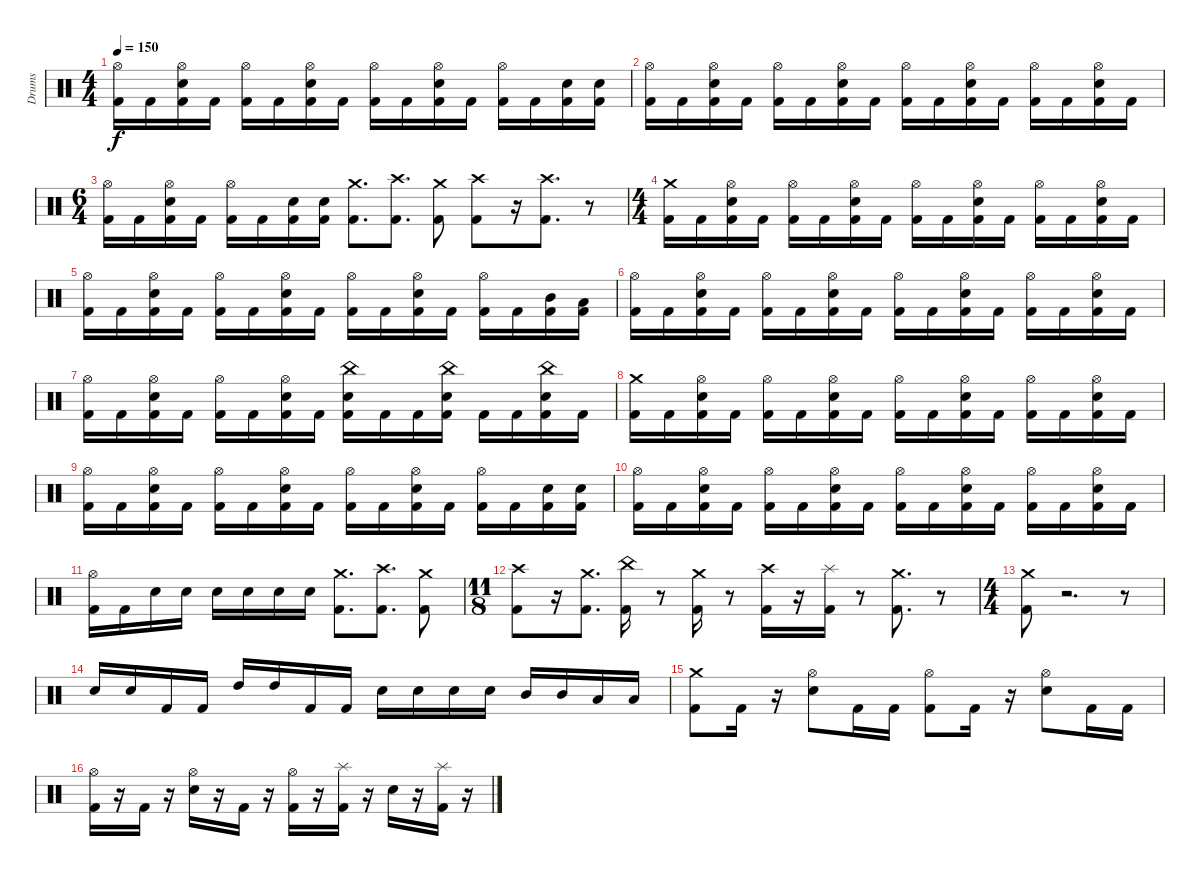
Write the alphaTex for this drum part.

\track ("Drums" "Drums") {instrument percussion}
\staff {score}
\articulation defaults
\ts (4 4)
\tempo 150
\clef neutral
\ks c
("Hi-Hat (open)" "Kick (hit) 2").16{dy f} "Kick (hit) 2".16 ("Hi-Hat (open)" "Electric Snare (hit)" "Kick (hit) 2").16 "Kick (hit) 2".16 ("Hi-Hat (open)" "Kick (hit) 2").16 "Kick (hit) 2".16 ("Hi-Hat (open)" "Electric Snare (hit)" "Kick (hit) 2").16 "Kick (hit) 2".16 ("Hi-Hat (open)" "Kick (hit) 2").16 "Kick (hit) 2".16 ("Hi-Hat (open)" "Electric Snare (hit)" "Kick (hit) 2").16 "Kick (hit) 2".16 ("Hi-Hat (open)" "Kick (hit) 2").16 "Kick (hit) 2".16 ("Electric Snare (hit)" "Kick (hit) 2").16 ("Electric Snare (hit)" "Kick (hit) 2").16 |
("Hi-Hat (open)" "Kick (hit) 2").16 "Kick (hit) 2".16 ("Hi-Hat (open)" "Electric Snare (hit)" "Kick (hit) 2").16 "Kick (hit) 2".16 ("Hi-Hat (open)" "Kick (hit) 2").16 "Kick (hit) 2".16 ("Hi-Hat (open)" "Electric Snare (hit)" "Kick (hit) 2").16 "Kick (hit) 2".16 ("Hi-Hat (open)" "Kick (hit) 2").16 "Kick (hit) 2".16 ("Hi-Hat (open)" "Electric Snare (hit)" "Kick (hit) 2").16 "Kick (hit) 2".16 ("Hi-Hat (open)" "Kick (hit) 2").16 "Kick (hit) 2".16 ("Hi-Hat (open)" "Electric Snare (hit)" "Kick (hit) 2").16 "Kick (hit) 2".16 |
\ts (6 4)
("Hi-Hat (open)" "Kick (hit) 2").16 "Kick (hit) 2".16 ("Hi-Hat (open)" "Electric Snare (hit)" "Kick (hit) 2").16 "Kick (hit) 2".16 ("Hi-Hat (open)" "Kick (hit) 2").16 "Kick (hit) 2".16 ("Electric Snare (hit)" "Kick (hit) 2").16 ("Electric Snare (hit)" "Kick (hit) 2").16 ("Crash medium (hit)" "Kick (hit) 2").8{d} ("Crash high (hit)" "Kick (hit) 2").8{d} ("Crash medium (hit)" "Kick (hit) 2").8 ("Crash high (hit)" "Kick (hit) 2").8 r.16 ("Crash high (hit)" "Kick (hit) 2").8{d} r.8 |
\ts (4 4)
("Crash medium (hit)" "Kick (hit) 2").16 "Kick (hit) 2".16 ("Hi-Hat (open)" "Electric Snare (hit)" "Kick (hit) 2").16 "Kick (hit) 2".16 ("Hi-Hat (open)" "Kick (hit) 2").16 "Kick (hit) 2".16 ("Hi-Hat (open)" "Electric Snare (hit)" "Kick (hit) 2").16 "Kick (hit) 2".16 ("Hi-Hat (open)" "Kick (hit) 2").16 "Kick (hit) 2".16 ("Hi-Hat (open)" "Electric Snare (hit)" "Kick (hit) 2").16 "Kick (hit) 2".16 ("Hi-Hat (open)" "Kick (hit) 2").16 "Kick (hit) 2".16 ("Hi-Hat (open)" "Electric Snare (hit)" "Kick (hit) 2").16 "Kick (hit) 2".16 |
("Hi-Hat (open)" "Kick (hit) 2").16 "Kick (hit) 2".16 ("Hi-Hat (open)" "Electric Snare (hit)" "Kick (hit) 2").16 "Kick (hit) 2".16 ("Hi-Hat (open)" "Kick (hit) 2").16 "Kick (hit) 2".16 ("Hi-Hat (open)" "Electric Snare (hit)" "Kick (hit) 2").16 "Kick (hit) 2".16 ("Hi-Hat (open)" "Kick (hit) 2").16 "Kick (hit) 2".16 ("Hi-Hat (open)" "Electric Snare (hit)" "Kick (hit) 2").16 "Kick (hit) 2".16 ("Hi-Hat (open)" "Kick (hit) 2").16 "Kick (hit) 2".16 ("Mid Tom (hit)" "Kick (hit) 2").16 ("Low Tom (hit)" "Kick (hit) 2").16 |
("Hi-Hat (open)" "Kick (hit) 2").16 "Kick (hit) 2".16 ("Hi-Hat (open)" "Electric Snare (hit)" "Kick (hit) 2").16 "Kick (hit) 2".16 ("Hi-Hat (open)" "Kick (hit) 2").16 "Kick (hit) 2".16 ("Hi-Hat (open)" "Electric Snare (hit)" "Kick (hit) 2").16 "Kick (hit) 2".16 ("Hi-Hat (open)" "Kick (hit) 2").16 "Kick (hit) 2".16 ("Hi-Hat (open)" "Electric Snare (hit)" "Kick (hit) 2").16 "Kick (hit) 2".16 ("Hi-Hat (open)" "Kick (hit) 2").16 "Kick (hit) 2".16 ("Hi-Hat (open)" "Electric Snare (hit)" "Kick (hit) 2").16 "Kick (hit) 2".16 |
("Hi-Hat (open)" "Kick (hit) 2").16 "Kick (hit) 2".16 ("Hi-Hat (open)" "Electric Snare (hit)" "Kick (hit) 2").16 "Kick (hit) 2".16 ("Hi-Hat (open)" "Kick (hit) 2").16 "Kick (hit) 2".16 ("Hi-Hat (open)" "Electric Snare (hit)" "Kick (hit) 2").16 "Kick (hit) 2".16 ("Electric Snare (hit)" "Kick (hit) 2" "China (hit)").16 "Kick (hit) 2".16 "Kick (hit) 2".16 ("Electric Snare (hit)" "Kick (hit) 2" "China (hit)").16 "Kick (hit) 2".16 "Kick (hit) 2".16 ("Electric Snare (hit)" "Kick (hit) 2" "China (hit)").16 "Kick (hit) 2".16 |
("Crash medium (hit)" "Kick (hit) 2").16 "Kick (hit) 2".16 ("Hi-Hat (open)" "Electric Snare (hit)" "Kick (hit) 2").16 "Kick (hit) 2".16 ("Hi-Hat (open)" "Kick (hit) 2").16 "Kick (hit) 2".16 ("Hi-Hat (open)" "Electric Snare (hit)" "Kick (hit) 2").16 "Kick (hit) 2".16 ("Hi-Hat (open)" "Kick (hit) 2").16 "Kick (hit) 2".16 ("Hi-Hat (open)" "Electric Snare (hit)" "Kick (hit) 2").16 "Kick (hit) 2".16 ("Hi-Hat (open)" "Kick (hit) 2").16 "Kick (hit) 2".16 ("Hi-Hat (open)" "Electric Snare (hit)" "Kick (hit) 2").16 "Kick (hit) 2".16 |
("Hi-Hat (open)" "Kick (hit) 2").16 "Kick (hit) 2".16 ("Hi-Hat (open)" "Electric Snare (hit)" "Kick (hit) 2").16 "Kick (hit) 2".16 ("Hi-Hat (open)" "Kick (hit) 2").16 "Kick (hit) 2".16 ("Hi-Hat (open)" "Electric Snare (hit)" "Kick (hit) 2").16 "Kick (hit) 2".16 ("Hi-Hat (open)" "Kick (hit) 2").16 "Kick (hit) 2".16 ("Hi-Hat (open)" "Electric Snare (hit)" "Kick (hit) 2").16 "Kick (hit) 2".16 ("Hi-Hat (open)" "Kick (hit) 2").16 "Kick (hit) 2".16 ("Electric Snare (hit)" "Kick (hit) 2").16 ("Electric Snare (hit)" "Kick (hit) 2").16 |
("Hi-Hat (open)" "Kick (hit) 2").16 "Kick (hit) 2".16 ("Hi-Hat (open)" "Electric Snare (hit)" "Kick (hit) 2").16 "Kick (hit) 2".16 ("Hi-Hat (open)" "Kick (hit) 2").16 "Kick (hit) 2".16 ("Hi-Hat (open)" "Electric Snare (hit)" "Kick (hit) 2").16 "Kick (hit) 2".16 ("Hi-Hat (open)" "Kick (hit) 2").16 "Kick (hit) 2".16 ("Hi-Hat (open)" "Electric Snare (hit)" "Kick (hit) 2").16 "Kick (hit) 2".16 ("Hi-Hat (open)" "Kick (hit) 2").16 "Kick (hit) 2".16 ("Hi-Hat (open)" "Electric Snare (hit)" "Kick (hit) 2").16 "Kick (hit) 2".16 |
("Hi-Hat (open)" "Kick (hit) 2").16 "Kick (hit) 2".16 "Electric Snare (hit)".16 "Electric Snare (hit)".16 "Electric Snare (hit)".16 "Electric Snare (hit)".16 "Electric Snare (hit)".16 "Electric Snare (hit)".16 ("Crash medium (hit)" "Kick (hit) 2").8{d} ("Crash high (hit)" "Kick (hit) 2").8{d} ("Crash medium (hit)" "Kick (hit) 2").8 |
\ts (11 8)
("Crash high (hit)" "Kick (hit) 2").8 r.16 ("Crash medium (hit)" "Kick (hit) 2").8{d} ("China (hit)" "Kick (hit) 2").16 r.8 ("Crash medium (hit)" "Kick (hit) 2").16 r.8 ("Crash high (hit)" "Kick (hit) 2").16 r.16 ("Splash (hit)" "Kick (hit) 2").16 r.8 ("Crash medium (hit)" "Kick (hit) 2").8{d} r.8 |
\ts (4 4)
("Crash medium (hit)" "Kick (hit) 2").8 r.2{d} r.8 |
"Electric Snare (hit)".16 "Electric Snare (hit)".16 "Kick (hit) 2".16 "Kick (hit) 2".16 "High Tom (hit)".16 "High Tom (hit)".16 "Kick (hit) 2".16 "Kick (hit) 2".16 "Electric Snare (hit)".16 "Electric Snare (hit)".16 "Electric Snare (hit)".16 "Electric Snare (hit)".16 "Mid Tom (hit)".16 "Mid Tom (hit)".16 "Low Tom (hit)".16 "Low Tom (hit)".16 |
("Crash medium (hit)" "Kick (hit) 2").8 "Kick (hit) 2".16 r.16 ("Hi-Hat (open)" "Electric Snare (hit)").8 "Kick (hit) 2".16 "Kick (hit) 2".16 ("Hi-Hat (open)" "Kick (hit) 2").8 "Kick (hit) 2".16 r.16 ("Hi-Hat (open)" "Electric Snare (hit)").8 "Kick (hit) 2".16 "Kick (hit) 2".16 |
("Hi-Hat (open)" "Kick (hit) 2").16 r.16 "Kick (hit) 2".16 r.16 ("Hi-Hat (open)" "Electric Snare (hit)").16 r.16 "Kick (hit) 2".16 r.16 ("Hi-Hat (open)" "Kick (hit) 2").16 r.16 ("Splash (hit)" "Kick (hit) 2").16 r.16 "Electric Snare (hit)".16 r.16 ("Splash (hit)" "Kick (hit) 2").16 r.16
